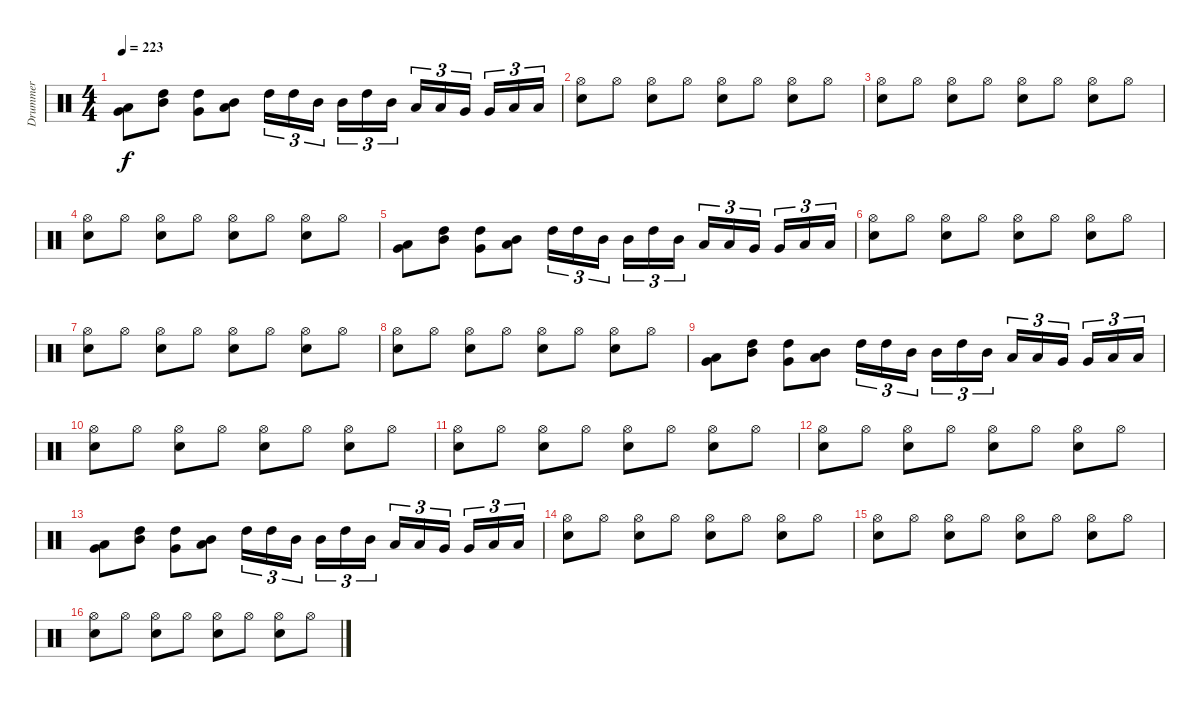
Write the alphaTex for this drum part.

\track ("Drummer" "Drummer") {instrument percussion}
\staff {score}
\articulation defaults
\ts (4 4)
\tempo 223
\clef neutral
\ks c
("Very Low Tom (hit)" "Low Tom (hit)").8{dy f} ("Mid Tom (hit)" "High Tom (hit)").8 ("High Tom (hit)" "Very Low Tom (hit)").8 ("Low Floor Tom (hit)" "Mid Tom (hit)").8 "High Tom (hit)".16{tu (3 2)} "High Tom (hit)".16{tu (3 2)} "Mid Tom (hit)".16{tu (3 2) beam splitsecondary} "Mid Tom (hit)".16{tu (3 2)} "High Tom (hit)".16{tu (3 2)} "Mid Tom (hit)".16{tu (3 2)} "Low Tom (hit)".16{tu (3 2)} "Low Tom (hit)".16{tu (3 2)} "Very Low Tom (hit)".16{tu (3 2) beam splitsecondary} "Very Low Tom (hit)".16{tu (3 2)} "Low Floor Tom (hit)".16{tu (3 2)} "Low Floor Tom (hit)".16{tu (3 2)} |
("Hi-Hat (open)" "Electric Snare (hit)").8 "Hi-Hat (open)".8 ("Hi-Hat (open)" "Electric Snare (hit)").8 "Hi-Hat (open)".8 ("Hi-Hat (open)" "Electric Snare (hit)").8 "Hi-Hat (open)".8 ("Hi-Hat (open)" "Electric Snare (hit)").8 "Hi-Hat (open)".8 |
("Hi-Hat (open)" "Electric Snare (hit)").8 "Hi-Hat (open)".8 ("Hi-Hat (open)" "Electric Snare (hit)").8 "Hi-Hat (open)".8 ("Hi-Hat (open)" "Electric Snare (hit)").8 "Hi-Hat (open)".8 ("Hi-Hat (open)" "Electric Snare (hit)").8 "Hi-Hat (open)".8 |
("Hi-Hat (open)" "Electric Snare (hit)").8 "Hi-Hat (open)".8 ("Hi-Hat (open)" "Electric Snare (hit)").8 "Hi-Hat (open)".8 ("Hi-Hat (open)" "Electric Snare (hit)").8 "Hi-Hat (open)".8 ("Hi-Hat (open)" "Electric Snare (hit)").8 "Hi-Hat (open)".8 |
("Very Low Tom (hit)" "Low Tom (hit)").8 ("Mid Tom (hit)" "High Tom (hit)").8 ("High Tom (hit)" "Very Low Tom (hit)").8 ("Low Floor Tom (hit)" "Mid Tom (hit)").8 "High Tom (hit)".16{tu (3 2)} "High Tom (hit)".16{tu (3 2)} "Mid Tom (hit)".16{tu (3 2) beam splitsecondary} "Mid Tom (hit)".16{tu (3 2)} "High Tom (hit)".16{tu (3 2)} "Mid Tom (hit)".16{tu (3 2)} "Low Tom (hit)".16{tu (3 2)} "Low Tom (hit)".16{tu (3 2)} "Very Low Tom (hit)".16{tu (3 2) beam splitsecondary} "Very Low Tom (hit)".16{tu (3 2)} "Low Floor Tom (hit)".16{tu (3 2)} "Low Floor Tom (hit)".16{tu (3 2)} |
("Hi-Hat (open)" "Electric Snare (hit)").8 "Hi-Hat (open)".8 ("Hi-Hat (open)" "Electric Snare (hit)").8 "Hi-Hat (open)".8 ("Hi-Hat (open)" "Electric Snare (hit)").8 "Hi-Hat (open)".8 ("Hi-Hat (open)" "Electric Snare (hit)").8 "Hi-Hat (open)".8 |
("Hi-Hat (open)" "Electric Snare (hit)").8 "Hi-Hat (open)".8 ("Hi-Hat (open)" "Electric Snare (hit)").8 "Hi-Hat (open)".8 ("Hi-Hat (open)" "Electric Snare (hit)").8 "Hi-Hat (open)".8 ("Hi-Hat (open)" "Electric Snare (hit)").8 "Hi-Hat (open)".8 |
("Hi-Hat (open)" "Electric Snare (hit)").8 "Hi-Hat (open)".8 ("Hi-Hat (open)" "Electric Snare (hit)").8 "Hi-Hat (open)".8 ("Hi-Hat (open)" "Electric Snare (hit)").8 "Hi-Hat (open)".8 ("Hi-Hat (open)" "Electric Snare (hit)").8 "Hi-Hat (open)".8 |
("Very Low Tom (hit)" "Low Tom (hit)").8 ("Mid Tom (hit)" "High Tom (hit)").8 ("High Tom (hit)" "Very Low Tom (hit)").8 ("Low Floor Tom (hit)" "Mid Tom (hit)").8 "High Tom (hit)".16{tu (3 2)} "High Tom (hit)".16{tu (3 2)} "Mid Tom (hit)".16{tu (3 2) beam splitsecondary} "Mid Tom (hit)".16{tu (3 2)} "High Tom (hit)".16{tu (3 2)} "Mid Tom (hit)".16{tu (3 2)} "Low Tom (hit)".16{tu (3 2)} "Low Tom (hit)".16{tu (3 2)} "Very Low Tom (hit)".16{tu (3 2) beam splitsecondary} "Very Low Tom (hit)".16{tu (3 2)} "Low Floor Tom (hit)".16{tu (3 2)} "Low Floor Tom (hit)".16{tu (3 2)} |
("Hi-Hat (open)" "Electric Snare (hit)").8 "Hi-Hat (open)".8 ("Hi-Hat (open)" "Electric Snare (hit)").8 "Hi-Hat (open)".8 ("Hi-Hat (open)" "Electric Snare (hit)").8 "Hi-Hat (open)".8 ("Hi-Hat (open)" "Electric Snare (hit)").8 "Hi-Hat (open)".8 |
("Hi-Hat (open)" "Electric Snare (hit)").8 "Hi-Hat (open)".8 ("Hi-Hat (open)" "Electric Snare (hit)").8 "Hi-Hat (open)".8 ("Hi-Hat (open)" "Electric Snare (hit)").8 "Hi-Hat (open)".8 ("Hi-Hat (open)" "Electric Snare (hit)").8 "Hi-Hat (open)".8 |
("Hi-Hat (open)" "Electric Snare (hit)").8 "Hi-Hat (open)".8 ("Hi-Hat (open)" "Electric Snare (hit)").8 "Hi-Hat (open)".8 ("Hi-Hat (open)" "Electric Snare (hit)").8 "Hi-Hat (open)".8 ("Hi-Hat (open)" "Electric Snare (hit)").8 "Hi-Hat (open)".8 |
("Very Low Tom (hit)" "Low Tom (hit)").8 ("Mid Tom (hit)" "High Tom (hit)").8 ("High Tom (hit)" "Very Low Tom (hit)").8 ("Low Floor Tom (hit)" "Mid Tom (hit)").8 "High Tom (hit)".16{tu (3 2)} "High Tom (hit)".16{tu (3 2)} "Mid Tom (hit)".16{tu (3 2) beam splitsecondary} "Mid Tom (hit)".16{tu (3 2)} "High Tom (hit)".16{tu (3 2)} "Mid Tom (hit)".16{tu (3 2)} "Low Tom (hit)".16{tu (3 2)} "Low Tom (hit)".16{tu (3 2)} "Very Low Tom (hit)".16{tu (3 2) beam splitsecondary} "Very Low Tom (hit)".16{tu (3 2)} "Low Floor Tom (hit)".16{tu (3 2)} "Low Floor Tom (hit)".16{tu (3 2)} |
("Hi-Hat (open)" "Electric Snare (hit)").8 "Hi-Hat (open)".8 ("Hi-Hat (open)" "Electric Snare (hit)").8 "Hi-Hat (open)".8 ("Hi-Hat (open)" "Electric Snare (hit)").8 "Hi-Hat (open)".8 ("Hi-Hat (open)" "Electric Snare (hit)").8 "Hi-Hat (open)".8 |
("Hi-Hat (open)" "Electric Snare (hit)").8 "Hi-Hat (open)".8 ("Hi-Hat (open)" "Electric Snare (hit)").8 "Hi-Hat (open)".8 ("Hi-Hat (open)" "Electric Snare (hit)").8 "Hi-Hat (open)".8 ("Hi-Hat (open)" "Electric Snare (hit)").8 "Hi-Hat (open)".8 |
("Hi-Hat (open)" "Electric Snare (hit)").8 "Hi-Hat (open)".8 ("Hi-Hat (open)" "Electric Snare (hit)").8 "Hi-Hat (open)".8 ("Hi-Hat (open)" "Electric Snare (hit)").8 "Hi-Hat (open)".8 ("Hi-Hat (open)" "Electric Snare (hit)").8 "Hi-Hat (open)".8
